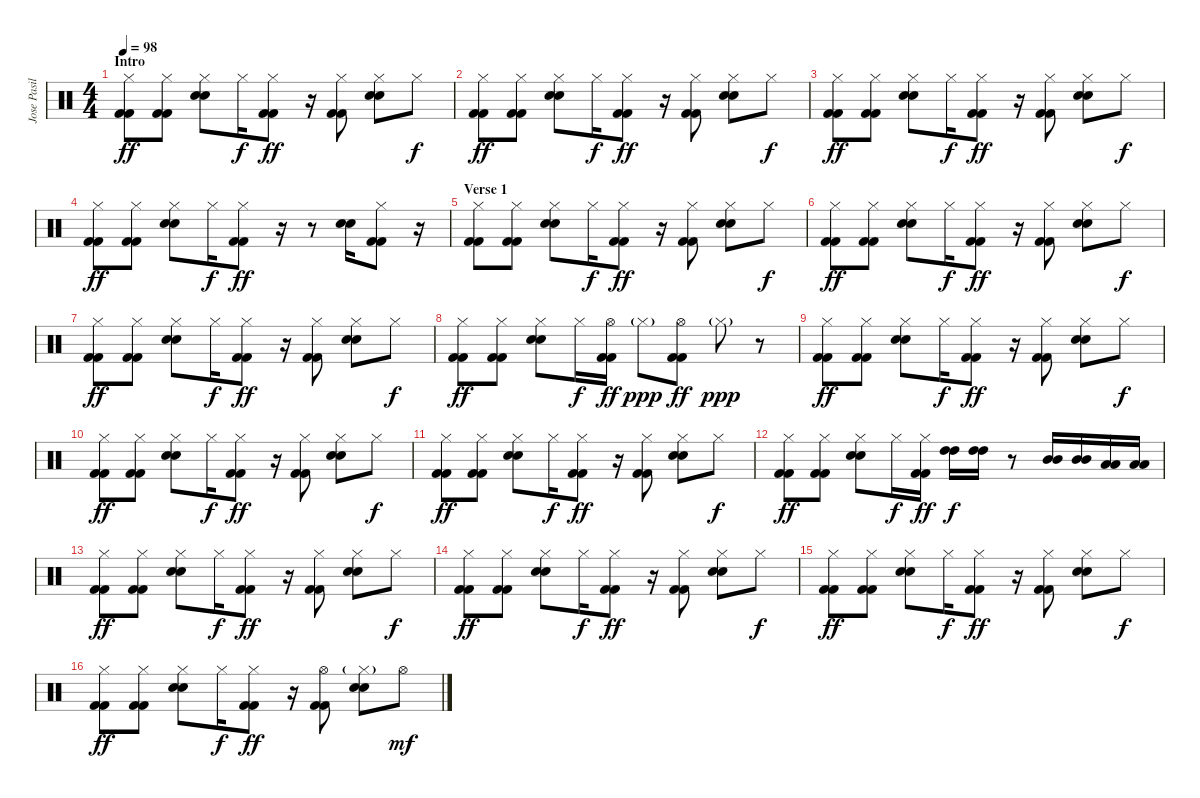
\track ("Jose Pasillas - Drums" "Jose Pasil") {instrument percussion}
\staff {score}
\articulation defaults
\ts (4 4)
\section ("" "Intro")
\tempo 98
\clef neutral
\ks c
("Hi-Hat (closed)" "Kick (hit) 2" "Kick (hit) 2").8{dy ff} ("Hi-Hat (closed)" "Kick (hit) 2" "Kick (hit) 2").8 ("Hi-Hat (closed)" "Electric Snare (hit)" "Electric Snare (hit)").8 "Hi-Hat (closed)".16{dy f} ("Hi-Hat (closed)" "Kick (hit) 2" "Kick (hit) 2").8{dy ff} r.16 ("Hi-Hat (closed)" "Kick (hit) 2" "Kick (hit) 2").8 ("Hi-Hat (closed)" "Electric Snare (hit)" "Electric Snare (hit)").8 "Hi-Hat (closed)".8{dy f} |
("Hi-Hat (closed)" "Kick (hit) 2" "Kick (hit) 2").8{dy ff} ("Hi-Hat (closed)" "Kick (hit) 2" "Kick (hit) 2").8 ("Hi-Hat (closed)" "Electric Snare (hit)" "Electric Snare (hit)").8 "Hi-Hat (closed)".16{dy f} ("Hi-Hat (closed)" "Kick (hit) 2" "Kick (hit) 2").8{dy ff} r.16 ("Hi-Hat (closed)" "Kick (hit) 2" "Kick (hit) 2").8 ("Hi-Hat (closed)" "Electric Snare (hit)" "Electric Snare (hit)").8 "Hi-Hat (closed)".8{dy f} |
("Hi-Hat (closed)" "Kick (hit) 2" "Kick (hit) 2").8{dy ff} ("Hi-Hat (closed)" "Kick (hit) 2" "Kick (hit) 2").8 ("Hi-Hat (closed)" "Electric Snare (hit)" "Electric Snare (hit)").8 "Hi-Hat (closed)".16{dy f} ("Hi-Hat (closed)" "Kick (hit) 2" "Kick (hit) 2").8{dy ff} r.16 ("Hi-Hat (closed)" "Kick (hit) 2" "Kick (hit) 2").8 ("Hi-Hat (closed)" "Electric Snare (hit)" "Electric Snare (hit)").8 "Hi-Hat (closed)".8{dy f} |
("Hi-Hat (closed)" "Kick (hit) 2" "Kick (hit) 2").8{dy ff} ("Hi-Hat (closed)" "Kick (hit) 2" "Kick (hit) 2").8 ("Hi-Hat (closed)" "Electric Snare (hit)" "Electric Snare (hit)").8 "Hi-Hat (closed)".16{dy f} ("Hi-Hat (closed)" "Kick (hit) 2" "Kick (hit) 2").8{dy ff} r.16 r.8 ("Electric Snare (hit)" "Electric Snare (hit)").16 ("Hi-Hat (closed)" "Kick (hit) 2" "Kick (hit) 2").8 r.16 |
\section ("" "Verse 1")
("Hi-Hat (closed)" "Kick (hit) 2" "Kick (hit) 2").8 ("Hi-Hat (closed)" "Kick (hit) 2" "Kick (hit) 2").8 ("Hi-Hat (closed)" "Electric Snare (hit)" "Electric Snare (hit)").8 "Hi-Hat (closed)".16{dy f} ("Hi-Hat (closed)" "Kick (hit) 2" "Kick (hit) 2").8{dy ff} r.16 ("Hi-Hat (closed)" "Kick (hit) 2" "Kick (hit) 2").8 ("Hi-Hat (closed)" "Electric Snare (hit)" "Electric Snare (hit)").8 "Hi-Hat (closed)".8{dy f} |
("Hi-Hat (closed)" "Kick (hit) 2" "Kick (hit) 2").8{dy ff} ("Hi-Hat (closed)" "Kick (hit) 2" "Kick (hit) 2").8 ("Hi-Hat (closed)" "Electric Snare (hit)" "Electric Snare (hit)").8 "Hi-Hat (closed)".16{dy f} ("Hi-Hat (closed)" "Kick (hit) 2" "Kick (hit) 2").8{dy ff} r.16 ("Hi-Hat (closed)" "Kick (hit) 2" "Kick (hit) 2").8 ("Hi-Hat (closed)" "Electric Snare (hit)" "Electric Snare (hit)").8 "Hi-Hat (closed)".8{dy f} |
("Hi-Hat (closed)" "Kick (hit) 2" "Kick (hit) 2").8{dy ff} ("Hi-Hat (closed)" "Kick (hit) 2" "Kick (hit) 2").8 ("Hi-Hat (closed)" "Electric Snare (hit)" "Electric Snare (hit)").8 "Hi-Hat (closed)".16{dy f} ("Hi-Hat (closed)" "Kick (hit) 2" "Kick (hit) 2").8{dy ff} r.16 ("Hi-Hat (closed)" "Kick (hit) 2" "Kick (hit) 2").8 ("Hi-Hat (closed)" "Electric Snare (hit)" "Electric Snare (hit)").8 "Hi-Hat (closed)".8{dy f} |
("Hi-Hat (closed)" "Kick (hit) 2" "Kick (hit) 2").8{dy ff} ("Hi-Hat (closed)" "Kick (hit) 2" "Kick (hit) 2").8 ("Hi-Hat (closed)" "Electric Snare (hit)" "Electric Snare (hit)").8 "Hi-Hat (closed)".16{dy f} ("Hi-Hat (open)" "Kick (hit) 2" "Kick (hit) 2").16{dy ff} "Hi-Hat (closed)"{g}.8{dy ppp} ("Hi-Hat (open)" "Kick (hit) 2" "Kick (hit) 2").8{dy ff} "Hi-Hat (closed)"{g}.8{dy ppp} r.8 |
("Hi-Hat (closed)" "Kick (hit) 2" "Kick (hit) 2").8{dy ff} ("Hi-Hat (closed)" "Kick (hit) 2" "Kick (hit) 2").8 ("Hi-Hat (closed)" "Electric Snare (hit)" "Electric Snare (hit)").8 "Hi-Hat (closed)".16{dy f} ("Hi-Hat (closed)" "Kick (hit) 2" "Kick (hit) 2").8{dy ff} r.16 ("Hi-Hat (closed)" "Kick (hit) 2" "Kick (hit) 2").8 ("Hi-Hat (closed)" "Electric Snare (hit)" "Electric Snare (hit)").8 "Hi-Hat (closed)".8{dy f} |
("Hi-Hat (closed)" "Kick (hit) 2" "Kick (hit) 2").8{dy ff} ("Hi-Hat (closed)" "Kick (hit) 2" "Kick (hit) 2").8 ("Hi-Hat (closed)" "Electric Snare (hit)" "Electric Snare (hit)").8 "Hi-Hat (closed)".16{dy f} ("Hi-Hat (closed)" "Kick (hit) 2" "Kick (hit) 2").8{dy ff} r.16 ("Hi-Hat (closed)" "Kick (hit) 2" "Kick (hit) 2").8 ("Hi-Hat (closed)" "Electric Snare (hit)" "Electric Snare (hit)").8 "Hi-Hat (closed)".8{dy f} |
("Hi-Hat (closed)" "Kick (hit) 2" "Kick (hit) 2").8{dy ff} ("Hi-Hat (closed)" "Kick (hit) 2" "Kick (hit) 2").8 ("Hi-Hat (closed)" "Electric Snare (hit)" "Electric Snare (hit)").8 "Hi-Hat (closed)".16{dy f} ("Hi-Hat (closed)" "Kick (hit) 2" "Kick (hit) 2").8{dy ff} r.16 ("Hi-Hat (closed)" "Kick (hit) 2" "Kick (hit) 2").8 ("Hi-Hat (closed)" "Electric Snare (hit)" "Electric Snare (hit)").8 "Hi-Hat (closed)".8{dy f} |
("Hi-Hat (closed)" "Kick (hit) 2" "Kick (hit) 2").8{dy ff} ("Hi-Hat (closed)" "Kick (hit) 2" "Kick (hit) 2").8 ("Hi-Hat (closed)" "Electric Snare (hit)" "Electric Snare (hit)").8 "Hi-Hat (closed)".16{dy f} ("Hi-Hat (closed)" "Kick (hit) 2" "Kick (hit) 2").16{dy ff} ("High Tom (hit)" "High Tom (hit)").16{dy f} ("High Tom (hit)" "High Tom (hit)").16 r.8 ("Mid Tom (hit)" "Mid Tom (hit)").16 ("Mid Tom (hit)" "Mid Tom (hit)").16 ("Low Tom (hit)" "Low Tom (hit)").16 ("Low Tom (hit)" "Low Tom (hit)").16 |
("Hi-Hat (closed)" "Kick (hit) 2" "Kick (hit) 2").8{dy ff} ("Hi-Hat (closed)" "Kick (hit) 2" "Kick (hit) 2").8 ("Hi-Hat (closed)" "Electric Snare (hit)" "Electric Snare (hit)").8 "Hi-Hat (closed)".16{dy f} ("Hi-Hat (closed)" "Kick (hit) 2" "Kick (hit) 2").8{dy ff} r.16 ("Hi-Hat (closed)" "Kick (hit) 2" "Kick (hit) 2").8 ("Hi-Hat (closed)" "Electric Snare (hit)" "Electric Snare (hit)").8 "Hi-Hat (closed)".8{dy f} |
("Hi-Hat (closed)" "Kick (hit) 2" "Kick (hit) 2").8{dy ff} ("Hi-Hat (closed)" "Kick (hit) 2" "Kick (hit) 2").8 ("Hi-Hat (closed)" "Electric Snare (hit)" "Electric Snare (hit)").8 "Hi-Hat (closed)".16{dy f} ("Hi-Hat (closed)" "Kick (hit) 2" "Kick (hit) 2").8{dy ff} r.16 ("Hi-Hat (closed)" "Kick (hit) 2" "Kick (hit) 2").8 ("Hi-Hat (closed)" "Electric Snare (hit)" "Electric Snare (hit)").8 "Hi-Hat (closed)".8{dy f} |
("Hi-Hat (closed)" "Kick (hit) 2" "Kick (hit) 2").8{dy ff} ("Hi-Hat (closed)" "Kick (hit) 2" "Kick (hit) 2").8 ("Hi-Hat (closed)" "Electric Snare (hit)" "Electric Snare (hit)").8 "Hi-Hat (closed)".16{dy f} ("Hi-Hat (closed)" "Kick (hit) 2" "Kick (hit) 2").8{dy ff} r.16 ("Hi-Hat (closed)" "Kick (hit) 2" "Kick (hit) 2").8 ("Hi-Hat (closed)" "Electric Snare (hit)" "Electric Snare (hit)").8 "Hi-Hat (closed)".8{dy f} |
("Hi-Hat (closed)" "Kick (hit) 2" "Kick (hit) 2").8{dy ff} ("Hi-Hat (closed)" "Kick (hit) 2" "Kick (hit) 2").8 ("Hi-Hat (closed)" "Electric Snare (hit)" "Electric Snare (hit)").8 "Hi-Hat (closed)".16{dy f} ("Hi-Hat (closed)" "Kick (hit) 2" "Kick (hit) 2").8{dy ff} r.16 ("Hi-Hat (open)" "Kick (hit) 2" "Kick (hit) 2").8 ("Hi-Hat (closed)"{g} "Electric Snare (hit)" "Electric Snare (hit)").8 "Hi-Hat (open)".8{dy mf}
